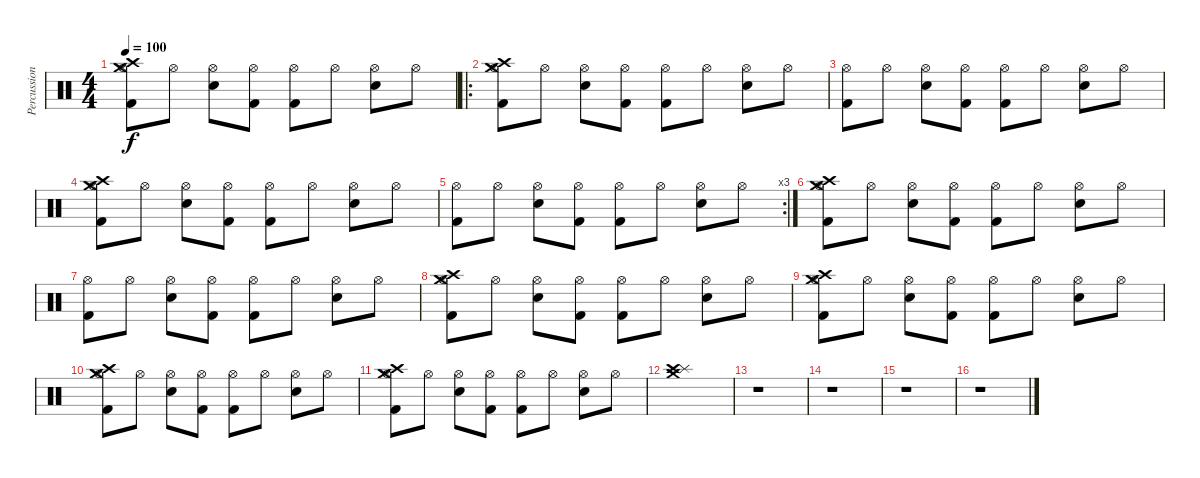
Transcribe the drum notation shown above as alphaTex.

\track ("Percussion" "Percussion") {instrument percussion}
\staff {score}
\articulation defaults
\ts (4 4)
\tempo 100
\clef neutral
\ks c
("Crash high (hit)" "Crash medium (hit)" "Kick (hit) 2" "Hi-Hat (open)").8{dy f} "Hi-Hat (open)".8 ("Hi-Hat (open)" "Electric Snare (hit)").8 ("Hi-Hat (open)" "Kick (hit) 2").8 ("Hi-Hat (open)" "Kick (hit) 2").8 "Hi-Hat (open)".8 ("Hi-Hat (open)" "Electric Snare (hit)").8 "Hi-Hat (open)".8 |
\ro
("Crash high (hit)" "Crash medium (hit)" "Kick (hit) 2" "Hi-Hat (open)").8 "Hi-Hat (open)".8 ("Hi-Hat (open)" "Electric Snare (hit)").8 ("Hi-Hat (open)" "Kick (hit) 2").8 ("Hi-Hat (open)" "Kick (hit) 2").8 "Hi-Hat (open)".8 ("Hi-Hat (open)" "Electric Snare (hit)").8 "Hi-Hat (open)".8 |
("Kick (hit) 2" "Hi-Hat (open)").8 "Hi-Hat (open)".8 ("Hi-Hat (open)" "Electric Snare (hit)").8 ("Hi-Hat (open)" "Kick (hit) 2").8 ("Hi-Hat (open)" "Kick (hit) 2").8 "Hi-Hat (open)".8 ("Hi-Hat (open)" "Electric Snare (hit)").8 "Hi-Hat (open)".8 |
("Crash high (hit)" "Crash medium (hit)" "Kick (hit) 2" "Hi-Hat (open)").8 "Hi-Hat (open)".8 ("Hi-Hat (open)" "Electric Snare (hit)").8 ("Hi-Hat (open)" "Kick (hit) 2").8 ("Hi-Hat (open)" "Kick (hit) 2").8 "Hi-Hat (open)".8 ("Hi-Hat (open)" "Electric Snare (hit)").8 "Hi-Hat (open)".8 |
\rc 3
("Kick (hit) 2" "Hi-Hat (open)").8 "Hi-Hat (open)".8 ("Hi-Hat (open)" "Electric Snare (hit)").8 ("Hi-Hat (open)" "Kick (hit) 2").8 ("Hi-Hat (open)" "Kick (hit) 2").8 "Hi-Hat (open)".8 ("Hi-Hat (open)" "Electric Snare (hit)").8 "Hi-Hat (open)".8 |
("Crash high (hit)" "Crash medium (hit)" "Kick (hit) 2" "Hi-Hat (open)").8 "Hi-Hat (open)".8 ("Hi-Hat (open)" "Electric Snare (hit)").8 ("Hi-Hat (open)" "Kick (hit) 2").8 ("Hi-Hat (open)" "Kick (hit) 2").8 "Hi-Hat (open)".8 ("Hi-Hat (open)" "Electric Snare (hit)").8 "Hi-Hat (open)".8 |
("Kick (hit) 2" "Hi-Hat (open)").8 "Hi-Hat (open)".8 ("Hi-Hat (open)" "Electric Snare (hit)").8 ("Hi-Hat (open)" "Kick (hit) 2").8 ("Hi-Hat (open)" "Kick (hit) 2").8 "Hi-Hat (open)".8 ("Hi-Hat (open)" "Electric Snare (hit)").8 "Hi-Hat (open)".8 |
("Crash high (hit)" "Crash medium (hit)" "Kick (hit) 2" "Hi-Hat (open)").8 "Hi-Hat (open)".8 ("Hi-Hat (open)" "Electric Snare (hit)").8 ("Hi-Hat (open)" "Kick (hit) 2").8 ("Hi-Hat (open)" "Kick (hit) 2").8 "Hi-Hat (open)".8 ("Hi-Hat (open)" "Electric Snare (hit)").8 "Hi-Hat (open)".8 |
("Crash high (hit)" "Crash medium (hit)" "Kick (hit) 2" "Hi-Hat (open)").8 "Hi-Hat (open)".8 ("Hi-Hat (open)" "Electric Snare (hit)").8 ("Hi-Hat (open)" "Kick (hit) 2").8 ("Hi-Hat (open)" "Kick (hit) 2").8 "Hi-Hat (open)".8 ("Hi-Hat (open)" "Electric Snare (hit)").8 "Hi-Hat (open)".8 |
("Crash high (hit)" "Crash medium (hit)" "Kick (hit) 2" "Hi-Hat (open)").8 "Hi-Hat (open)".8 ("Hi-Hat (open)" "Electric Snare (hit)").8 ("Hi-Hat (open)" "Kick (hit) 2").8 ("Hi-Hat (open)" "Kick (hit) 2").8 "Hi-Hat (open)".8 ("Hi-Hat (open)" "Electric Snare (hit)").8 "Hi-Hat (open)".8 |
("Crash high (hit)" "Crash medium (hit)" "Kick (hit) 2" "Hi-Hat (open)").8 "Hi-Hat (open)".8 ("Hi-Hat (open)" "Electric Snare (hit)").8 ("Hi-Hat (open)" "Kick (hit) 2").8 ("Hi-Hat (open)" "Kick (hit) 2").8 "Hi-Hat (open)".8 ("Hi-Hat (open)" "Electric Snare (hit)").8 "Hi-Hat (open)".8 |
("Splash (hit)" "Crash high (hit)" "Crash medium (hit)").1 |
r.1 |
r.1 |
r.1 |
r.1
